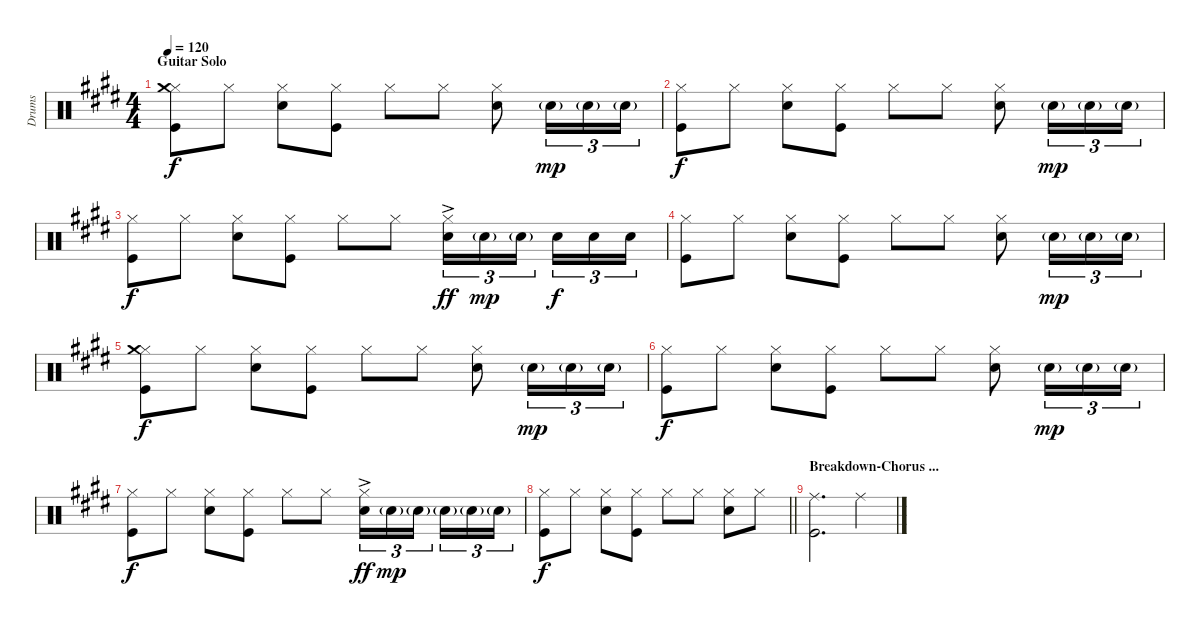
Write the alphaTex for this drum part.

\track ("Drums" "Drums") {instrument percussion}
\staff {score}
\articulation defaults
\ts (4 4)
\section ("" "Guitar Solo")
\tempo 120
\clef neutral
\ks e
("Hi-Hat (closed)" "Crash medium (hit)" "Kick (hit)").8{dy f} "Hi-Hat (closed)".8 ("Hi-Hat (closed)" "Snare (hit) 2").8 ("Hi-Hat (closed)" "Kick (hit)").8 "Hi-Hat (closed)".8 "Hi-Hat (closed)".8 ("Hi-Hat (closed)" "Snare (hit) 2").8 "Snare (hit) 2"{g}.16{tu (3 2) dy mp} "Snare (hit) 2"{g}.16{tu (3 2)} "Snare (hit) 2"{g}.16{tu (3 2)} |
("Hi-Hat (closed)" "Kick (hit)").8{dy f} "Hi-Hat (closed)".8 ("Hi-Hat (closed)" "Snare (hit) 2").8 ("Hi-Hat (closed)" "Kick (hit)").8 "Hi-Hat (closed)".8 "Hi-Hat (closed)".8 ("Hi-Hat (closed)" "Snare (hit) 2").8 "Snare (hit) 2"{g}.16{tu (3 2) dy mp} "Snare (hit) 2"{g}.16{tu (3 2)} "Snare (hit) 2"{g}.16{tu (3 2)} |
("Hi-Hat (closed)" "Kick (hit)").8{dy f} "Hi-Hat (closed)".8 ("Hi-Hat (closed)" "Snare (hit) 2").8 ("Hi-Hat (closed)" "Kick (hit)").8 "Hi-Hat (closed)".8 "Hi-Hat (closed)".8 ("Hi-Hat (closed)" "Snare (hit) 2"{ac}).16{tu (3 2) dy ff} "Snare (hit) 2"{g}.16{tu (3 2) dy mp} "Snare (hit) 2"{g}.16{tu (3 2) beam splitsecondary} "Snare (hit) 2".16{tu (3 2) dy f} "Snare (hit) 2".16{tu (3 2)} "Snare (hit) 2".16{tu (3 2)} |
("Hi-Hat (closed)" "Kick (hit)").8 "Hi-Hat (closed)".8 ("Hi-Hat (closed)" "Snare (hit) 2").8 ("Hi-Hat (closed)" "Kick (hit)").8 "Hi-Hat (closed)".8 "Hi-Hat (closed)".8 ("Hi-Hat (closed)" "Snare (hit) 2").8 "Snare (hit) 2"{g}.16{tu (3 2) dy mp} "Snare (hit) 2"{g}.16{tu (3 2)} "Snare (hit) 2"{g}.16{tu (3 2)} |
("Hi-Hat (closed)" "Crash medium (hit)" "Kick (hit)").8{dy f} "Hi-Hat (closed)".8 ("Hi-Hat (closed)" "Snare (hit) 2").8 ("Hi-Hat (closed)" "Kick (hit)").8 "Hi-Hat (closed)".8 "Hi-Hat (closed)".8 ("Hi-Hat (closed)" "Snare (hit) 2").8 "Snare (hit) 2"{g}.16{tu (3 2) dy mp} "Snare (hit) 2"{g}.16{tu (3 2)} "Snare (hit) 2"{g}.16{tu (3 2)} |
("Hi-Hat (closed)" "Kick (hit)").8{dy f} "Hi-Hat (closed)".8 ("Hi-Hat (closed)" "Snare (hit) 2").8 ("Hi-Hat (closed)" "Kick (hit)").8 "Hi-Hat (closed)".8 "Hi-Hat (closed)".8 ("Hi-Hat (closed)" "Snare (hit) 2").8 "Snare (hit) 2"{g}.16{tu (3 2) dy mp} "Snare (hit) 2"{g}.16{tu (3 2)} "Snare (hit) 2"{g}.16{tu (3 2)} |
("Hi-Hat (closed)" "Kick (hit)").8{dy f} "Hi-Hat (closed)".8 ("Hi-Hat (closed)" "Snare (hit) 2").8 ("Hi-Hat (closed)" "Kick (hit)").8 "Hi-Hat (closed)".8 "Hi-Hat (closed)".8 ("Hi-Hat (closed)" "Snare (hit) 2"{ac}).16{tu (3 2) dy ff} "Snare (hit) 2"{g}.16{tu (3 2) dy mp} "Snare (hit) 2"{g}.16{tu (3 2) beam splitsecondary} "Snare (hit) 2"{g}.16{tu (3 2)} "Snare (hit) 2"{g}.16{tu (3 2)} "Snare (hit) 2"{g}.16{tu (3 2)} |
\barLineRight lightlight
("Hi-Hat (closed)" "Kick (hit)").8{dy f} "Hi-Hat (closed)".8 ("Hi-Hat (closed)" "Snare (hit) 2").8 ("Hi-Hat (closed)" "Kick (hit)").8 "Hi-Hat (closed)".8 "Hi-Hat (closed)".8 ("Hi-Hat (closed)" "Snare (hit) 2").8 "Hi-Hat (closed)".8 |
\section ("" "Breakdown-Chorus ...")
("Ride (middle)" "Kick (hit)").2{d} "Ride (middle)".4
